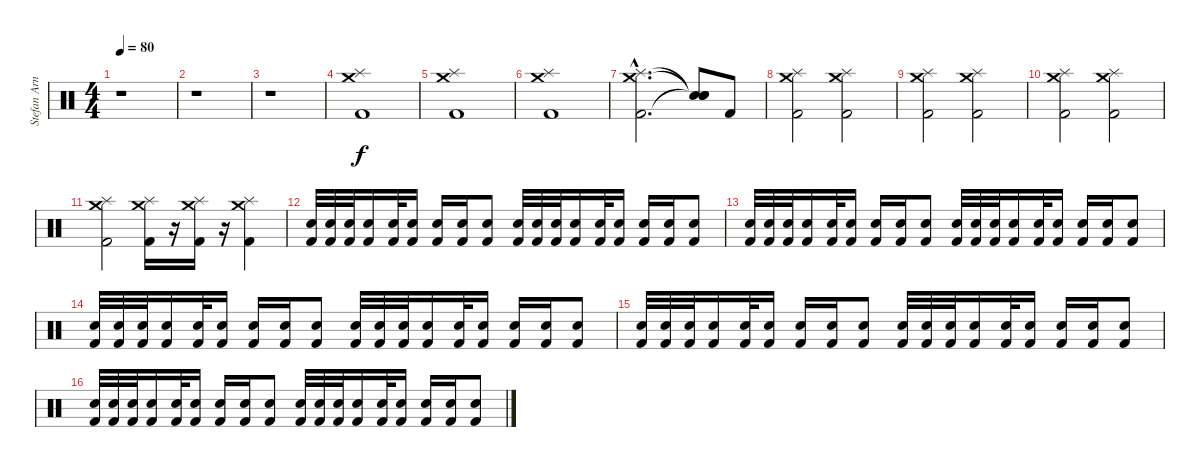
\track ("Stefan Arnold" "Stefan Arn") {instrument percussion}
\staff {score}
\articulation defaults
\ts (4 4)
\tempo 80
\clef neutral
\ks c
r.1{dy f} |
r.1 |
r.1 |
("Crash medium (hit)" "Splash (hit)" "Kick (hit) 2").1 |
("Crash medium (hit)" "Splash (hit)" "Kick (hit) 2").1 |
("Crash medium (hit)" "Splash (hit)" "Kick (hit) 2").1 |
("Crash medium (hit)"{hac} "Splash (hit)"{hac} "Kick (hit) 2"{hac}).2{d} ("Snare (hit)"{t} "Snare (hit)"{t} "Snare (hit)"{t}).8 "Kick (hit) 2".8 |
("Crash medium (hit)" "Splash (hit)" "Kick (hit) 2").2 ("Crash medium (hit)" "Splash (hit)" "Kick (hit) 2").2 |
("Crash medium (hit)" "Splash (hit)" "Kick (hit) 2").2 ("Crash medium (hit)" "Splash (hit)" "Kick (hit) 2").2 |
("Crash medium (hit)" "Splash (hit)" "Kick (hit) 2").2 ("Crash medium (hit)" "Splash (hit)" "Kick (hit) 2").2 |
("Crash medium (hit)" "Splash (hit)" "Kick (hit) 2").2 ("Crash medium (hit)" "Splash (hit)" "Kick (hit) 2").16 r.16 ("Crash medium (hit)" "Splash (hit)" "Kick (hit) 2").16 r.16 ("Crash medium (hit)" "Splash (hit)" "Kick (hit) 2").4 |
("Electric Snare (hit)" "Kick (hit) 2").32 ("Electric Snare (hit)" "Kick (hit) 2").32 ("Electric Snare (hit)" "Kick (hit) 2").32 ("Electric Snare (hit)" "Kick (hit) 2").16 ("Electric Snare (hit)" "Kick (hit) 2").32 ("Electric Snare (hit)" "Kick (hit) 2").16 ("Electric Snare (hit)" "Kick (hit) 2").16 ("Electric Snare (hit)" "Kick (hit) 2").16 ("Electric Snare (hit)" "Kick (hit) 2").8 ("Electric Snare (hit)" "Kick (hit) 2").32 ("Electric Snare (hit)" "Kick (hit) 2").32 ("Electric Snare (hit)" "Kick (hit) 2").32 ("Electric Snare (hit)" "Kick (hit) 2").16 ("Electric Snare (hit)" "Kick (hit) 2").32 ("Electric Snare (hit)" "Kick (hit) 2").16 ("Electric Snare (hit)" "Kick (hit) 2").16 ("Electric Snare (hit)" "Kick (hit) 2").16 ("Electric Snare (hit)" "Kick (hit) 2").8 |
("Electric Snare (hit)" "Kick (hit) 2").32 ("Electric Snare (hit)" "Kick (hit) 2").32 ("Electric Snare (hit)" "Kick (hit) 2").32 ("Electric Snare (hit)" "Kick (hit) 2").16 ("Electric Snare (hit)" "Kick (hit) 2").32 ("Electric Snare (hit)" "Kick (hit) 2").16 ("Electric Snare (hit)" "Kick (hit) 2").16 ("Electric Snare (hit)" "Kick (hit) 2").16 ("Electric Snare (hit)" "Kick (hit) 2").8 ("Electric Snare (hit)" "Kick (hit) 2").32 ("Electric Snare (hit)" "Kick (hit) 2").32 ("Electric Snare (hit)" "Kick (hit) 2").32 ("Electric Snare (hit)" "Kick (hit) 2").16 ("Electric Snare (hit)" "Kick (hit) 2").32 ("Electric Snare (hit)" "Kick (hit) 2").16 ("Electric Snare (hit)" "Kick (hit) 2").16 ("Electric Snare (hit)" "Kick (hit) 2").16 ("Electric Snare (hit)" "Kick (hit) 2").8 |
("Electric Snare (hit)" "Kick (hit) 2").32 ("Electric Snare (hit)" "Kick (hit) 2").32 ("Electric Snare (hit)" "Kick (hit) 2").32 ("Electric Snare (hit)" "Kick (hit) 2").16 ("Electric Snare (hit)" "Kick (hit) 2").32 ("Electric Snare (hit)" "Kick (hit) 2").16 ("Electric Snare (hit)" "Kick (hit) 2").16 ("Electric Snare (hit)" "Kick (hit) 2").16 ("Electric Snare (hit)" "Kick (hit) 2").8 ("Electric Snare (hit)" "Kick (hit) 2").32 ("Electric Snare (hit)" "Kick (hit) 2").32 ("Electric Snare (hit)" "Kick (hit) 2").32 ("Electric Snare (hit)" "Kick (hit) 2").16 ("Electric Snare (hit)" "Kick (hit) 2").32 ("Electric Snare (hit)" "Kick (hit) 2").16 ("Electric Snare (hit)" "Kick (hit) 2").16 ("Electric Snare (hit)" "Kick (hit) 2").16 ("Electric Snare (hit)" "Kick (hit) 2").8 |
("Electric Snare (hit)" "Kick (hit) 2").32 ("Electric Snare (hit)" "Kick (hit) 2").32 ("Electric Snare (hit)" "Kick (hit) 2").32 ("Electric Snare (hit)" "Kick (hit) 2").16 ("Electric Snare (hit)" "Kick (hit) 2").32 ("Electric Snare (hit)" "Kick (hit) 2").16 ("Electric Snare (hit)" "Kick (hit) 2").16 ("Electric Snare (hit)" "Kick (hit) 2").16 ("Electric Snare (hit)" "Kick (hit) 2").8 ("Electric Snare (hit)" "Kick (hit) 2").32 ("Electric Snare (hit)" "Kick (hit) 2").32 ("Electric Snare (hit)" "Kick (hit) 2").32 ("Electric Snare (hit)" "Kick (hit) 2").16 ("Electric Snare (hit)" "Kick (hit) 2").32 ("Electric Snare (hit)" "Kick (hit) 2").16 ("Electric Snare (hit)" "Kick (hit) 2").16 ("Electric Snare (hit)" "Kick (hit) 2").16 ("Electric Snare (hit)" "Kick (hit) 2").8 |
("Electric Snare (hit)" "Kick (hit) 2").32 ("Electric Snare (hit)" "Kick (hit) 2").32 ("Electric Snare (hit)" "Kick (hit) 2").32 ("Electric Snare (hit)" "Kick (hit) 2").16 ("Electric Snare (hit)" "Kick (hit) 2").32 ("Electric Snare (hit)" "Kick (hit) 2").16 ("Electric Snare (hit)" "Kick (hit) 2").16 ("Electric Snare (hit)" "Kick (hit) 2").16 ("Electric Snare (hit)" "Kick (hit) 2").8 ("Electric Snare (hit)" "Kick (hit) 2").32 ("Electric Snare (hit)" "Kick (hit) 2").32 ("Electric Snare (hit)" "Kick (hit) 2").32 ("Electric Snare (hit)" "Kick (hit) 2").16 ("Electric Snare (hit)" "Kick (hit) 2").32 ("Electric Snare (hit)" "Kick (hit) 2").16 ("Electric Snare (hit)" "Kick (hit) 2").16 ("Electric Snare (hit)" "Kick (hit) 2").16 ("Electric Snare (hit)" "Kick (hit) 2").8
